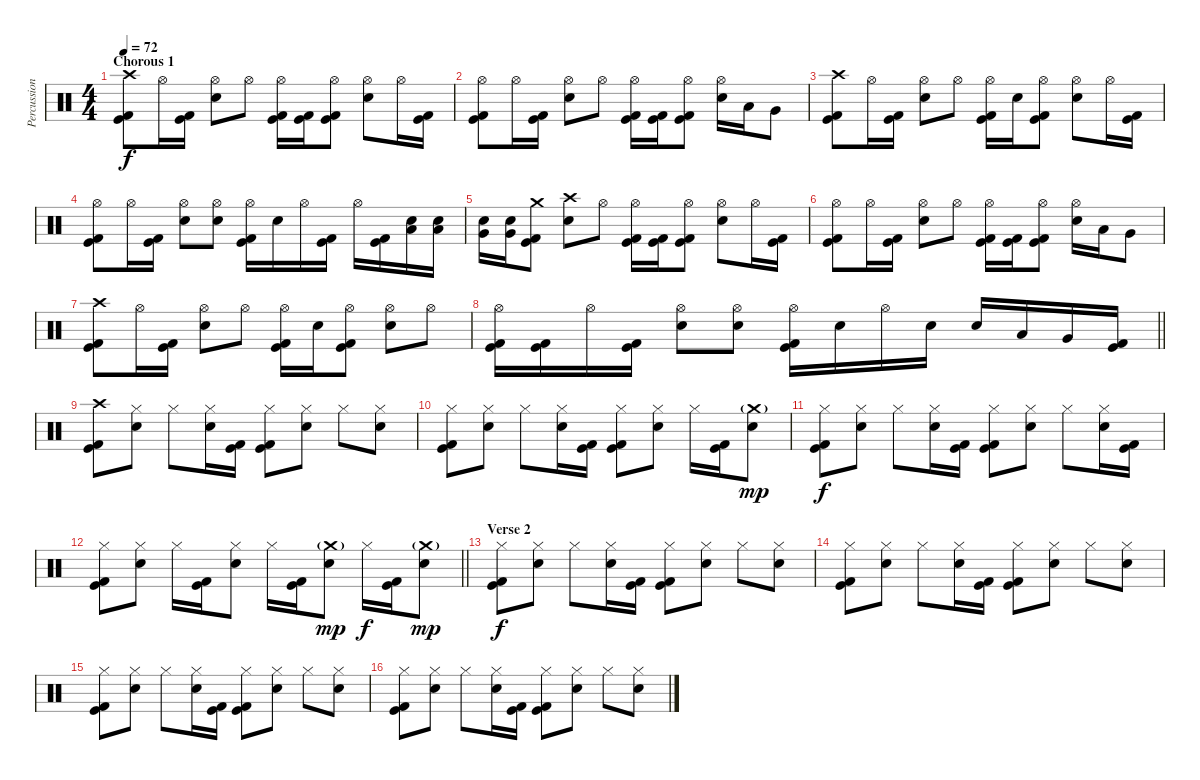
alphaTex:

\track ("Percussion" "Percussion") {instrument percussion}
\staff {score}
\articulation defaults
\ts (4 4)
\section ("" "Chorous 1")
\tempo 72
\clef neutral
\ks c
("Crash high (hit)" "Kick (hit)" "Kick (hit) 2").8{dy f} "Hi-Hat (open)".16 ("Kick (hit)" "Kick (hit) 2").16 ("Hi-Hat (open)" "Electric Snare (hit)").8 "Hi-Hat (open)".8 ("Hi-Hat (open)" "Kick (hit)" "Kick (hit) 2").16 ("Kick (hit)" "Kick (hit) 2").16 ("Hi-Hat (open)" "Kick (hit)" "Kick (hit) 2").8 ("Hi-Hat (open)" "Electric Snare (hit)").8 "Hi-Hat (open)".16 ("Kick (hit)" "Kick (hit) 2").16 |
("Hi-Hat (open)" "Kick (hit)" "Kick (hit) 2").8 "Hi-Hat (open)".16 ("Kick (hit)" "Kick (hit) 2").16 ("Hi-Hat (open)" "Electric Snare (hit)").8 "Hi-Hat (open)".8 ("Hi-Hat (open)" "Kick (hit)" "Kick (hit) 2").16 ("Kick (hit)" "Kick (hit) 2").16 ("Hi-Hat (open)" "Kick (hit)" "Kick (hit) 2").8 ("Hi-Hat (open)" "Electric Snare (hit)").16 "Low Tom (hit)".16 "Very Low Tom (hit)".8 |
("Crash high (hit)" "Kick (hit)" "Kick (hit) 2").8 "Hi-Hat (open)".16 ("Kick (hit)" "Kick (hit) 2").16 ("Hi-Hat (open)" "Electric Snare (hit)").8 "Hi-Hat (open)".8 ("Hi-Hat (open)" "Kick (hit)" "Kick (hit) 2").16 "Electric Snare (hit)".16 ("Hi-Hat (open)" "Kick (hit)" "Kick (hit) 2").8 ("Hi-Hat (open)" "Electric Snare (hit)").8 "Hi-Hat (open)".16 ("Kick (hit)" "Kick (hit) 2").16 |
("Hi-Hat (open)" "Kick (hit)" "Kick (hit) 2").8 "Hi-Hat (open)".16 ("Kick (hit)" "Kick (hit) 2").16 ("Hi-Hat (open)" "Electric Snare (hit)").8 ("Hi-Hat (open)" "Electric Snare (hit)").8 ("Hi-Hat (open)" "Kick (hit)" "Kick (hit) 2").16 "Electric Snare (hit)".16 "Hi-Hat (open)".16 ("Kick (hit)" "Kick (hit) 2").16 "Hi-Hat (open)".16 ("Kick (hit)" "Kick (hit) 2").16 ("Electric Snare (hit)" "Low Tom (hit)").16 ("Electric Snare (hit)" "Low Tom (hit)").16 |
("Electric Snare (hit)" "Very Low Tom (hit)").16 ("Electric Snare (hit)" "Very Low Tom (hit)").16 ("Crash medium (hit)" "Kick (hit)" "Kick (hit) 2").8 ("Crash high (hit)" "Electric Snare (hit)").8 "Hi-Hat (open)".8 ("Hi-Hat (open)" "Kick (hit)" "Kick (hit) 2").16 ("Kick (hit)" "Kick (hit) 2").16 ("Hi-Hat (open)" "Kick (hit)" "Kick (hit) 2").8 ("Hi-Hat (open)" "Electric Snare (hit)").8 "Hi-Hat (open)".16 ("Kick (hit)" "Kick (hit) 2").16 |
("Hi-Hat (open)" "Kick (hit)" "Kick (hit) 2").8 "Hi-Hat (open)".16 ("Kick (hit)" "Kick (hit) 2").16 ("Hi-Hat (open)" "Electric Snare (hit)").8 "Hi-Hat (open)".8 ("Hi-Hat (open)" "Kick (hit)" "Kick (hit) 2").16 ("Kick (hit)" "Kick (hit) 2").16 ("Hi-Hat (open)" "Kick (hit)" "Kick (hit) 2").8 ("Hi-Hat (open)" "Electric Snare (hit)").16 "Low Tom (hit)".16 "Very Low Tom (hit)".8 |
("Crash high (hit)" "Kick (hit)" "Kick (hit) 2").8 "Hi-Hat (open)".16 ("Kick (hit)" "Kick (hit) 2").16 ("Hi-Hat (open)" "Electric Snare (hit)").8 "Hi-Hat (open)".8 ("Hi-Hat (open)" "Kick (hit)" "Kick (hit) 2").16 "Electric Snare (hit)".16 ("Hi-Hat (open)" "Kick (hit)" "Kick (hit) 2").8 ("Hi-Hat (open)" "Electric Snare (hit)").8 "Hi-Hat (open)".8 |
\barLineRight lightlight
("Hi-Hat (open)" "Kick (hit)" "Kick (hit) 2").16 ("Kick (hit)" "Kick (hit) 2").16 "Hi-Hat (open)".16 ("Kick (hit)" "Kick (hit) 2").16 ("Hi-Hat (open)" "Electric Snare (hit)").8 ("Hi-Hat (open)" "Electric Snare (hit)").8 ("Hi-Hat (open)" "Kick (hit)" "Kick (hit) 2").16 "Electric Snare (hit)".16 "Hi-Hat (open)".16 "Electric Snare (hit)".16 "Electric Snare (hit)".16 "Low Tom (hit)".16 "Very Low Tom (hit)".16 ("Kick (hit)" "Kick (hit) 2").16 |
\section ("" "")
("Crash high (hit)" "Kick (hit)" "Kick (hit) 2").8 ("Hi-Hat (closed)" "Electric Snare (hit)").8 "Hi-Hat (closed)".8 ("Hi-Hat (closed)" "Electric Snare (hit)").16 ("Kick (hit)" "Kick (hit) 2").16 ("Hi-Hat (closed)" "Kick (hit)" "Kick (hit) 2").8 ("Hi-Hat (closed)" "Electric Snare (hit)").8 "Hi-Hat (closed)".8 ("Hi-Hat (closed)" "Electric Snare (hit)").8 |
("Hi-Hat (closed)" "Kick (hit)" "Kick (hit) 2").8 ("Hi-Hat (closed)" "Electric Snare (hit)").8 "Hi-Hat (closed)".8 ("Hi-Hat (closed)" "Electric Snare (hit)").16 ("Kick (hit)" "Kick (hit) 2").16 ("Hi-Hat (closed)" "Kick (hit)" "Kick (hit) 2").8 ("Hi-Hat (closed)" "Electric Snare (hit)").8 "Hi-Hat (closed)".16 ("Kick (hit)" "Kick (hit) 2").16 ("Crash medium (hit)"{g} "Electric Snare (hit)").8{dy mp} |
("Hi-Hat (closed)" "Kick (hit)" "Kick (hit) 2").8{dy f} ("Hi-Hat (closed)" "Electric Snare (hit)").8 "Hi-Hat (closed)".8 ("Hi-Hat (closed)" "Electric Snare (hit)").16 ("Kick (hit)" "Kick (hit) 2").16 ("Hi-Hat (closed)" "Kick (hit)" "Kick (hit) 2").8 ("Hi-Hat (closed)" "Electric Snare (hit)").8 "Hi-Hat (closed)".8 ("Hi-Hat (closed)" "Electric Snare (hit)").16 ("Kick (hit)" "Kick (hit) 2").16 |
\barLineRight lightlight
("Hi-Hat (closed)" "Kick (hit)" "Kick (hit) 2").8 ("Hi-Hat (closed)" "Electric Snare (hit)").8 "Hi-Hat (closed)".16 ("Kick (hit)" "Kick (hit) 2").16 ("Hi-Hat (closed)" "Electric Snare (hit)").8 "Hi-Hat (closed)".16 ("Kick (hit)" "Kick (hit) 2").16 ("Crash medium (hit)"{g} "Electric Snare (hit)").8{dy mp} "Hi-Hat (closed)".16{dy f} ("Kick (hit)" "Kick (hit) 2").16 ("Crash medium (hit)"{g} "Electric Snare (hit)").8{dy mp} |
\section ("" "Verse 2")
("Hi-Hat (closed)" "Kick (hit)" "Kick (hit) 2").8{dy f} ("Hi-Hat (closed)" "Electric Snare (hit)").8 "Hi-Hat (closed)".8 ("Hi-Hat (closed)" "Electric Snare (hit)").16 ("Kick (hit)" "Kick (hit) 2").16 ("Hi-Hat (closed)" "Kick (hit)" "Kick (hit) 2").8 ("Hi-Hat (closed)" "Electric Snare (hit)").8 "Hi-Hat (closed)".8 ("Hi-Hat (closed)" "Electric Snare (hit)").8 |
("Hi-Hat (closed)" "Kick (hit)" "Kick (hit) 2").8 ("Hi-Hat (closed)" "Electric Snare (hit)").8 "Hi-Hat (closed)".8 ("Hi-Hat (closed)" "Electric Snare (hit)").16 ("Kick (hit)" "Kick (hit) 2").16 ("Hi-Hat (closed)" "Kick (hit)" "Kick (hit) 2").8 ("Hi-Hat (closed)" "Electric Snare (hit)").8 "Hi-Hat (closed)".8 ("Hi-Hat (closed)" "Electric Snare (hit)").8 |
("Hi-Hat (closed)" "Kick (hit)" "Kick (hit) 2").8 ("Hi-Hat (closed)" "Electric Snare (hit)").8 "Hi-Hat (closed)".8 ("Hi-Hat (closed)" "Electric Snare (hit)").16 ("Kick (hit)" "Kick (hit) 2").16 ("Hi-Hat (closed)" "Kick (hit)" "Kick (hit) 2").8 ("Hi-Hat (closed)" "Electric Snare (hit)").8 "Hi-Hat (closed)".8 ("Hi-Hat (closed)" "Electric Snare (hit)").8 |
("Hi-Hat (closed)" "Kick (hit)" "Kick (hit) 2").8 ("Hi-Hat (closed)" "Electric Snare (hit)").8 "Hi-Hat (closed)".8 ("Hi-Hat (closed)" "Electric Snare (hit)").16 ("Kick (hit)" "Kick (hit) 2").16 ("Hi-Hat (closed)" "Kick (hit)" "Kick (hit) 2").8 ("Hi-Hat (closed)" "Electric Snare (hit)").8 "Hi-Hat (closed)".8 ("Hi-Hat (closed)" "Electric Snare (hit)").8
